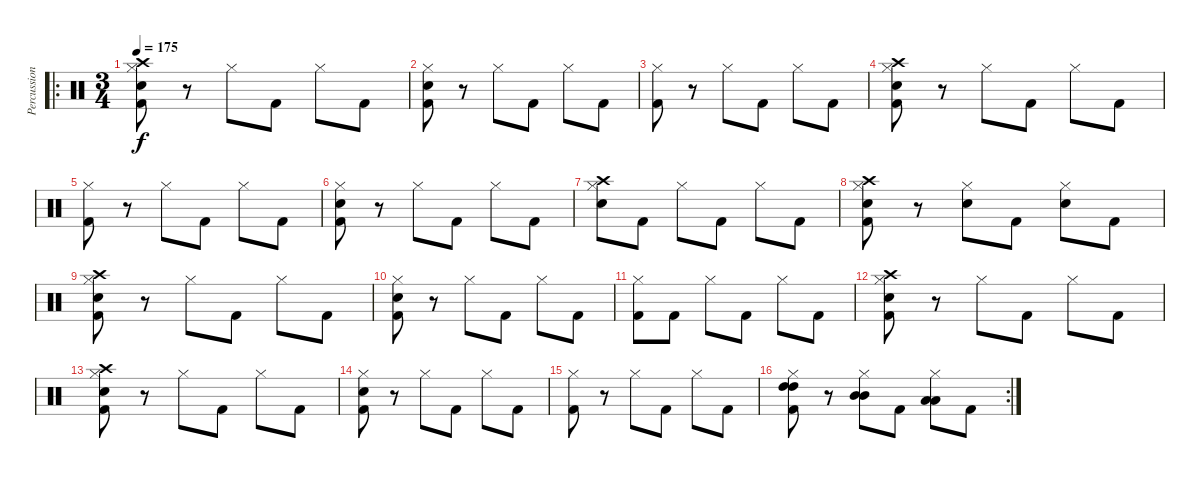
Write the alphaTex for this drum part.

\track ("Percussion" "Percussion") {instrument percussion}
\staff {score}
\articulation defaults
\ro
\ts (3 4)
\tempo 175
\clef neutral
\ks c
("Hi-Hat (closed)" "Crash high (hit)" "Electric Snare (hit)" "Kick (hit) 2").8{dy f} r.8 "Hi-Hat (closed)".8 "Kick (hit) 2".8 "Hi-Hat (closed)".8 "Kick (hit) 2".8 |
("Hi-Hat (closed)" "Electric Snare (hit)" "Kick (hit) 2").8 r.8 "Hi-Hat (closed)".8 "Kick (hit) 2".8 "Hi-Hat (closed)".8 "Kick (hit) 2".8 |
("Hi-Hat (closed)" "Kick (hit) 2").8 r.8 "Hi-Hat (closed)".8 "Kick (hit) 2".8 "Hi-Hat (closed)".8 "Kick (hit) 2".8 |
("Hi-Hat (closed)" "Crash high (hit)" "Electric Snare (hit)" "Kick (hit) 2").8 r.8 "Hi-Hat (closed)".8 "Kick (hit) 2".8 "Hi-Hat (closed)".8 "Kick (hit) 2".8 |
("Hi-Hat (closed)" "Kick (hit) 2").8 r.8 "Hi-Hat (closed)".8 "Kick (hit) 2".8 "Hi-Hat (closed)".8 "Kick (hit) 2".8 |
("Hi-Hat (closed)" "Electric Snare (hit)" "Kick (hit) 2").8 r.8 "Hi-Hat (closed)".8 "Kick (hit) 2".8 "Hi-Hat (closed)".8 "Kick (hit) 2".8 |
("Hi-Hat (closed)" "Crash high (hit)" "Electric Snare (hit)").8 "Kick (hit) 2".8 "Hi-Hat (closed)".8 "Kick (hit) 2".8 "Hi-Hat (closed)".8 "Kick (hit) 2".8 |
("Hi-Hat (closed)" "Crash high (hit)" "Electric Snare (hit)" "Kick (hit) 2").8 r.8 ("Hi-Hat (closed)" "Electric Snare (hit)").8 "Kick (hit) 2".8 ("Hi-Hat (closed)" "Electric Snare (hit)").8 "Kick (hit) 2".8 |
("Hi-Hat (closed)" "Crash high (hit)" "Electric Snare (hit)" "Kick (hit) 2").8 r.8 "Hi-Hat (closed)".8 "Kick (hit) 2".8 "Hi-Hat (closed)".8 "Kick (hit) 2".8 |
("Hi-Hat (closed)" "Electric Snare (hit)" "Kick (hit) 2").8 r.8 "Hi-Hat (closed)".8 "Kick (hit) 2".8 "Hi-Hat (closed)".8 "Kick (hit) 2".8 |
("Hi-Hat (closed)" "Kick (hit) 2").8 "Kick (hit) 2".8 "Hi-Hat (closed)".8 "Kick (hit) 2".8 "Hi-Hat (closed)".8 "Kick (hit) 2".8 |
("Hi-Hat (closed)" "Crash high (hit)" "Electric Snare (hit)" "Kick (hit) 2").8 r.8 "Hi-Hat (closed)".8 "Kick (hit) 2".8 "Hi-Hat (closed)".8 "Kick (hit) 2".8 |
("Hi-Hat (closed)" "Crash high (hit)" "Electric Snare (hit)" "Kick (hit) 2").8 r.8 "Hi-Hat (closed)".8 "Kick (hit) 2".8 "Hi-Hat (closed)".8 "Kick (hit) 2".8 |
("Hi-Hat (closed)" "Electric Snare (hit)" "Kick (hit) 2").8 r.8 "Hi-Hat (closed)".8 "Kick (hit) 2".8 "Hi-Hat (closed)".8 "Kick (hit) 2".8 |
("Hi-Hat (closed)" "Kick (hit) 2").8 r.8 "Hi-Hat (closed)".8 "Kick (hit) 2".8 "Hi-Hat (closed)".8 "Kick (hit) 2".8 |
\rc 2
("Hi-Hat (closed)" "High Tom (hit)" "High Tom (hit)" "Kick (hit) 2").8 r.8 ("Hi-Hat (closed)" "Mid Tom (hit)" "Mid Tom (hit)").8 "Kick (hit) 2".8 ("Hi-Hat (closed)" "Low Tom (hit)" "Low Tom (hit)").8 "Kick (hit) 2".8
